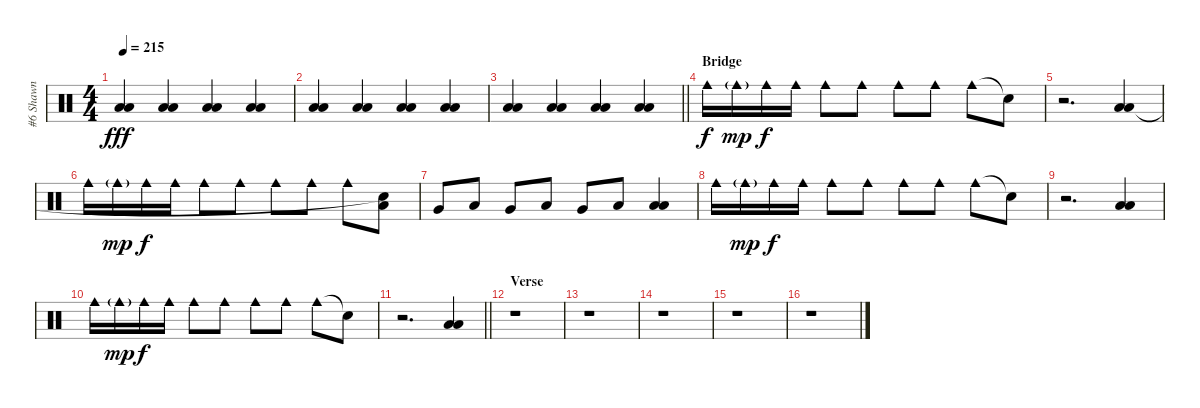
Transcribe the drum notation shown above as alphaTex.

\track ("#6 Shawn" "#6 Shawn") {instrument percussion}
\staff {score}
\articulation defaults
\ts (4 4)
\tempo 215
\clef neutral
\ks c
("Low Floor Tom (hit)" "Low Floor Tom (hit)").4{dy fff} ("Low Floor Tom (hit)" "Low Floor Tom (hit)").4 ("Low Floor Tom (hit)" "Low Floor Tom (hit)").4 ("Low Floor Tom (hit)" "Low Floor Tom (hit)").4 |
("Low Floor Tom (hit)" "Low Floor Tom (hit)").4 ("Low Floor Tom (hit)" "Low Floor Tom (hit)").4 ("Low Floor Tom (hit)" "Low Floor Tom (hit)").4 ("Low Floor Tom (hit)" "Low Floor Tom (hit)").4 |
\barLineRight lightlight
("Low Floor Tom (hit)" "Low Floor Tom (hit)").4 ("Low Floor Tom (hit)" "Low Floor Tom (hit)").4 ("Low Floor Tom (hit)" "Low Floor Tom (hit)").4 ("Low Floor Tom (hit)" "Low Floor Tom (hit)").4 |
\section ("" "Bridge")
"Cowbell medium (hit)".16{dy f} "Cowbell medium (hit)"{g}.16{dy mp} "Cowbell medium (hit)".16{dy f} "Cowbell medium (hit)".16 "Cowbell medium (hit)".8 "Cowbell medium (hit)".8 "Cowbell medium (hit)".8 "Cowbell medium (hit)".8 "Cowbell medium (hit)".8 "Snare (hit)"{t}.8 |
r.2{d} ("Low Floor Tom (hit)" "Low Floor Tom (hit)").4 |
"Cowbell medium (hit)".16 "Cowbell medium (hit)"{g}.16{dy mp} "Cowbell medium (hit)".16{dy f} "Cowbell medium (hit)".16 "Cowbell medium (hit)".8 "Cowbell medium (hit)".8 "Cowbell medium (hit)".8 "Cowbell medium (hit)".8 "Cowbell medium (hit)".8 ("Low Tom (hit)" "Snare (hit)"{t}).8 |
"Very Low Tom (hit)".8 "Low Tom (hit)".8 "Very Low Tom (hit)".8 "Low Tom (hit)".8 "Very Low Tom (hit)".8 "Low Tom (hit)".8 ("Low Floor Tom (hit)" "Low Floor Tom (hit)").4 |
"Cowbell medium (hit)".16 "Cowbell medium (hit)"{g}.16{dy mp} "Cowbell medium (hit)".16{dy f} "Cowbell medium (hit)".16 "Cowbell medium (hit)".8 "Cowbell medium (hit)".8 "Cowbell medium (hit)".8 "Cowbell medium (hit)".8 "Cowbell medium (hit)".8 "Snare (hit)"{t}.8 |
r.2{d} ("Low Floor Tom (hit)" "Low Floor Tom (hit)").4 |
"Cowbell medium (hit)".16 "Cowbell medium (hit)"{g}.16{dy mp} "Cowbell medium (hit)".16{dy f} "Cowbell medium (hit)".16 "Cowbell medium (hit)".8 "Cowbell medium (hit)".8 "Cowbell medium (hit)".8 "Cowbell medium (hit)".8 "Cowbell medium (hit)".8 "Snare (hit)"{t}.8 |
\barLineRight lightlight
r.2{d} ("Low Floor Tom (hit)" "Low Floor Tom (hit)").4 |
\section ("" "Verse")
r.1 |
r.1 |
r.1 |
r.1 |
r.1
